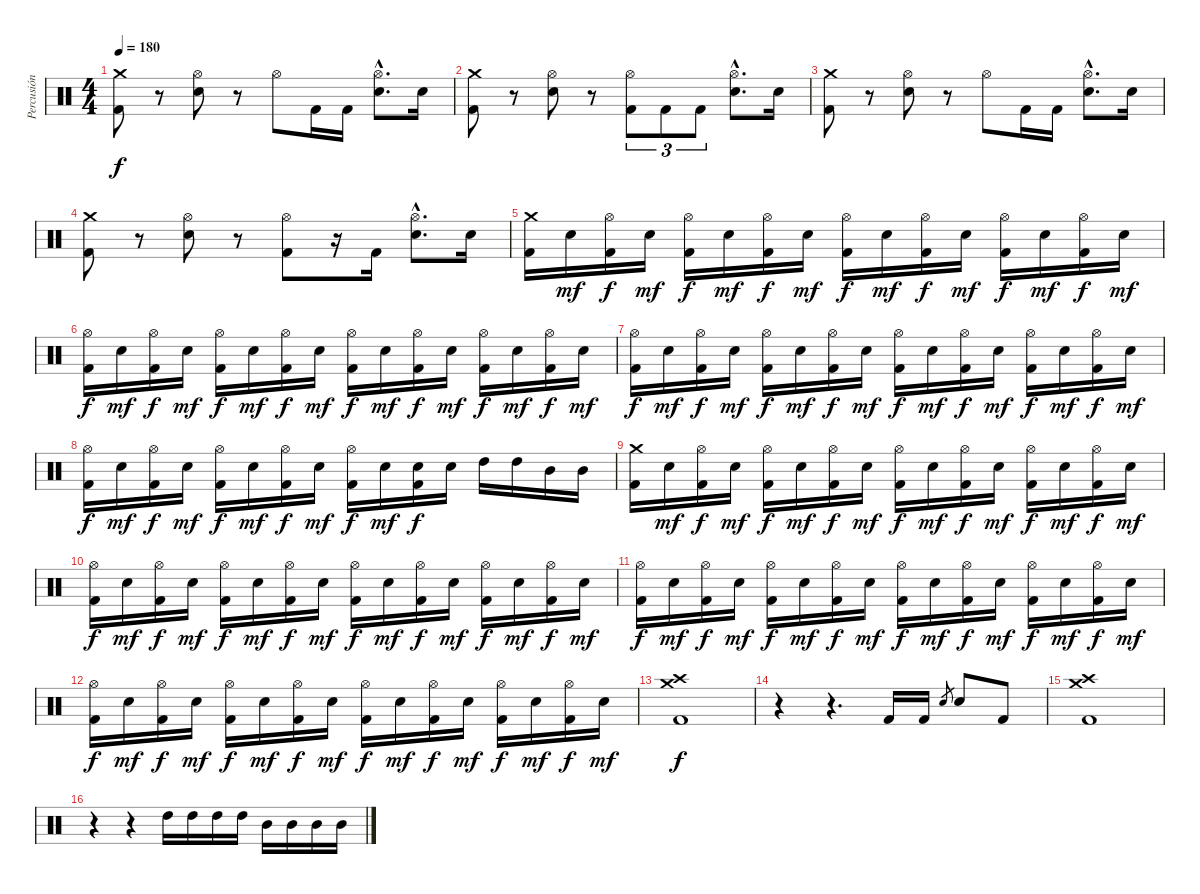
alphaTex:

\track ("Percusión" "Percusión") {instrument percussion}
\staff {score}
\articulation defaults
\ts (4 4)
\tempo 180
\clef neutral
\ks c
("Crash medium (hit)" "Kick (hit) 2").8{dy f} r.8 ("Hi-Hat (open)" "Electric Snare (hit)").8 r.8 "Hi-Hat (open)".8 "Kick (hit) 2".16 "Kick (hit) 2".16 ("Hi-Hat (open)"{hac} "Electric Snare (hit)"{hac}).8{d} "Electric Snare (hit)".16 |
("Crash medium (hit)" "Kick (hit) 2").8 r.8 ("Hi-Hat (open)" "Electric Snare (hit)").8 r.8 ("Hi-Hat (open)" "Kick (hit) 2").8{tu (3 2)} "Kick (hit) 2".8{tu (3 2)} "Kick (hit) 2".8{tu (3 2)} ("Hi-Hat (open)"{hac} "Electric Snare (hit)"{hac}).8{d} "Electric Snare (hit)".16 |
("Crash medium (hit)" "Kick (hit) 2").8 r.8 ("Hi-Hat (open)" "Electric Snare (hit)").8 r.8 "Hi-Hat (open)".8 "Kick (hit) 2".16 "Kick (hit) 2".16 ("Hi-Hat (open)"{hac} "Electric Snare (hit)"{hac}).8{d} "Electric Snare (hit)".16 |
("Crash medium (hit)" "Kick (hit) 2").8 r.8 ("Hi-Hat (open)" "Electric Snare (hit)").8 r.8 ("Hi-Hat (open)" "Kick (hit) 2").8 r.16 "Kick (hit) 2".16 ("Hi-Hat (open)"{hac} "Electric Snare (hit)"{hac}).8{d} "Electric Snare (hit)".16 |
("Crash medium (hit)" "Kick (hit) 2").16 "Electric Snare (hit)".16{dy mf} ("Hi-Hat (open)" "Kick (hit) 2").16{dy f} "Electric Snare (hit)".16{dy mf} ("Hi-Hat (open)" "Kick (hit) 2").16{dy f} "Electric Snare (hit)".16{dy mf} ("Hi-Hat (open)" "Kick (hit) 2").16{dy f} "Electric Snare (hit)".16{dy mf} ("Hi-Hat (open)" "Kick (hit) 2").16{dy f} "Electric Snare (hit)".16{dy mf} ("Hi-Hat (open)" "Kick (hit) 2").16{dy f} "Electric Snare (hit)".16{dy mf} ("Hi-Hat (open)" "Kick (hit) 2").16{dy f} "Electric Snare (hit)".16{dy mf} ("Hi-Hat (open)" "Kick (hit) 2").16{dy f} "Electric Snare (hit)".16{dy mf} |
("Hi-Hat (open)" "Kick (hit) 2").16{dy f} "Electric Snare (hit)".16{dy mf} ("Hi-Hat (open)" "Kick (hit) 2").16{dy f} "Electric Snare (hit)".16{dy mf} ("Hi-Hat (open)" "Kick (hit) 2").16{dy f} "Electric Snare (hit)".16{dy mf} ("Hi-Hat (open)" "Kick (hit) 2").16{dy f} "Electric Snare (hit)".16{dy mf} ("Hi-Hat (open)" "Kick (hit) 2").16{dy f} "Electric Snare (hit)".16{dy mf} ("Hi-Hat (open)" "Kick (hit) 2").16{dy f} "Electric Snare (hit)".16{dy mf} ("Hi-Hat (open)" "Kick (hit) 2").16{dy f} "Electric Snare (hit)".16{dy mf} ("Hi-Hat (open)" "Kick (hit) 2").16{dy f} "Electric Snare (hit)".16{dy mf} |
("Hi-Hat (open)" "Kick (hit) 2").16{dy f} "Electric Snare (hit)".16{dy mf} ("Hi-Hat (open)" "Kick (hit) 2").16{dy f} "Electric Snare (hit)".16{dy mf} ("Hi-Hat (open)" "Kick (hit) 2").16{dy f} "Electric Snare (hit)".16{dy mf} ("Hi-Hat (open)" "Kick (hit) 2").16{dy f} "Electric Snare (hit)".16{dy mf} ("Hi-Hat (open)" "Kick (hit) 2").16{dy f} "Electric Snare (hit)".16{dy mf} ("Hi-Hat (open)" "Kick (hit) 2").16{dy f} "Electric Snare (hit)".16{dy mf} ("Hi-Hat (open)" "Kick (hit) 2").16{dy f} "Electric Snare (hit)".16{dy mf} ("Hi-Hat (open)" "Kick (hit) 2").16{dy f} "Electric Snare (hit)".16{dy mf} |
("Hi-Hat (open)" "Kick (hit) 2").16{dy f} "Electric Snare (hit)".16{dy mf} ("Hi-Hat (open)" "Kick (hit) 2").16{dy f} "Electric Snare (hit)".16{dy mf} ("Hi-Hat (open)" "Kick (hit) 2").16{dy f} "Electric Snare (hit)".16{dy mf} ("Hi-Hat (open)" "Kick (hit) 2").16{dy f} "Electric Snare (hit)".16{dy mf} ("Hi-Hat (open)" "Kick (hit) 2").16{dy f} "Electric Snare (hit)".16{dy mf} ("Electric Snare (hit)" "Kick (hit) 2").16{dy f} "Electric Snare (hit)".16 "High Tom (hit)".16 "High Tom (hit)".16 "Mid Tom (hit)".16 "Mid Tom (hit)".16 |
("Crash medium (hit)" "Kick (hit) 2").16 "Electric Snare (hit)".16{dy mf} ("Hi-Hat (open)" "Kick (hit) 2").16{dy f} "Electric Snare (hit)".16{dy mf} ("Hi-Hat (open)" "Kick (hit) 2").16{dy f} "Electric Snare (hit)".16{dy mf} ("Hi-Hat (open)" "Kick (hit) 2").16{dy f} "Electric Snare (hit)".16{dy mf} ("Hi-Hat (open)" "Kick (hit) 2").16{dy f} "Electric Snare (hit)".16{dy mf} ("Hi-Hat (open)" "Kick (hit) 2").16{dy f} "Electric Snare (hit)".16{dy mf} ("Hi-Hat (open)" "Kick (hit) 2").16{dy f} "Electric Snare (hit)".16{dy mf} ("Hi-Hat (open)" "Kick (hit) 2").16{dy f} "Electric Snare (hit)".16{dy mf} |
("Hi-Hat (open)" "Kick (hit) 2").16{dy f} "Electric Snare (hit)".16{dy mf} ("Hi-Hat (open)" "Kick (hit) 2").16{dy f} "Electric Snare (hit)".16{dy mf} ("Hi-Hat (open)" "Kick (hit) 2").16{dy f} "Electric Snare (hit)".16{dy mf} ("Hi-Hat (open)" "Kick (hit) 2").16{dy f} "Electric Snare (hit)".16{dy mf} ("Hi-Hat (open)" "Kick (hit) 2").16{dy f} "Electric Snare (hit)".16{dy mf} ("Hi-Hat (open)" "Kick (hit) 2").16{dy f} "Electric Snare (hit)".16{dy mf} ("Hi-Hat (open)" "Kick (hit) 2").16{dy f} "Electric Snare (hit)".16{dy mf} ("Hi-Hat (open)" "Kick (hit) 2").16{dy f} "Electric Snare (hit)".16{dy mf} |
("Hi-Hat (open)" "Kick (hit) 2").16{dy f} "Electric Snare (hit)".16{dy mf} ("Hi-Hat (open)" "Kick (hit) 2").16{dy f} "Electric Snare (hit)".16{dy mf} ("Hi-Hat (open)" "Kick (hit) 2").16{dy f} "Electric Snare (hit)".16{dy mf} ("Hi-Hat (open)" "Kick (hit) 2").16{dy f} "Electric Snare (hit)".16{dy mf} ("Hi-Hat (open)" "Kick (hit) 2").16{dy f} "Electric Snare (hit)".16{dy mf} ("Hi-Hat (open)" "Kick (hit) 2").16{dy f} "Electric Snare (hit)".16{dy mf} ("Hi-Hat (open)" "Kick (hit) 2").16{dy f} "Electric Snare (hit)".16{dy mf} ("Hi-Hat (open)" "Kick (hit) 2").16{dy f} "Electric Snare (hit)".16{dy mf} |
("Hi-Hat (open)" "Kick (hit) 2").16{dy f} "Electric Snare (hit)".16{dy mf} ("Hi-Hat (open)" "Kick (hit) 2").16{dy f} "Electric Snare (hit)".16{dy mf} ("Hi-Hat (open)" "Kick (hit) 2").16{dy f} "Electric Snare (hit)".16{dy mf} ("Hi-Hat (open)" "Kick (hit) 2").16{dy f} "Electric Snare (hit)".16{dy mf} ("Hi-Hat (open)" "Kick (hit) 2").16{dy f} "Electric Snare (hit)".16{dy mf} ("Hi-Hat (open)" "Kick (hit) 2").16{dy f} "Electric Snare (hit)".16{dy mf} ("Hi-Hat (open)" "Kick (hit) 2").16{dy f} "Electric Snare (hit)".16{dy mf} ("Hi-Hat (open)" "Kick (hit) 2").16{dy f} "Electric Snare (hit)".16{dy mf} |
("Crash high (hit)" "Crash medium (hit)" "Kick (hit) 2").1{dy f} |
r.4 r.4{d} "Kick (hit) 2".16 "Kick (hit) 2".16 "Electric Snare (hit)".8{gr} "Electric Snare (hit)".8 "Kick (hit) 2".8 |
("Crash high (hit)" "Crash medium (hit)" "Kick (hit) 2").1 |
r.4 r.4 "High Tom (hit)".16 "High Tom (hit)".16 "High Tom (hit)".16 "High Tom (hit)".16 "Mid Tom (hit)".16 "Mid Tom (hit)".16 "Mid Tom (hit)".16 "Mid Tom (hit)".16
